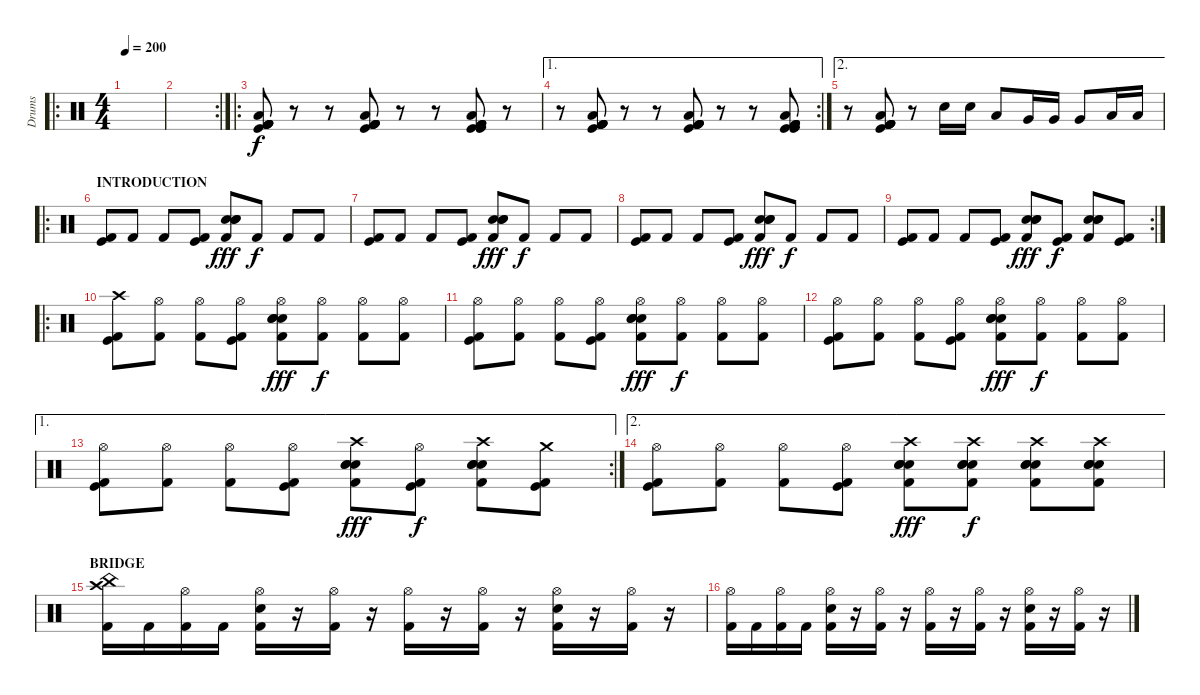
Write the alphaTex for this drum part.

\track ("Drums" "Drums") {instrument percussion}
\staff {score}
\articulation defaults
\ro
\ts (4 4)
\tempo 200
\clef neutral
\ks c
|
\rc 2
|
\ro
("Kick (hit)" "Low Floor Tom (hit)" "Kick (hit) 2" "Kick (hit) 2" "Kick (hit) 2" "Kick (hit) 2").8 r.8 r.8 ("Kick (hit)" "Low Floor Tom (hit)" "Kick (hit) 2" "Kick (hit) 2" "Kick (hit) 2" "Kick (hit) 2").8 r.8 r.8 ("Kick (hit)" "Low Floor Tom (hit)" "Kick (hit) 2" "Kick (hit) 2" "Kick (hit) 2" "Kick (hit)").8 r.8 |
\ae 1
\rc 2
r.8 ("Kick (hit)" "Low Floor Tom (hit)" "Kick (hit) 2" "Kick (hit) 2" "Kick (hit) 2" "Kick (hit) 2").8 r.8 r.8 ("Kick (hit)" "Low Floor Tom (hit)" "Kick (hit) 2" "Kick (hit) 2" "Kick (hit) 2" "Kick (hit) 2").8 r.8 r.8 ("Kick (hit)" "Low Floor Tom (hit)" "Kick (hit) 2" "Kick (hit) 2" "Kick (hit) 2" "Kick (hit)").8 |
\ae 2
r.8 ("Kick (hit)" "Low Floor Tom (hit)" "Kick (hit) 2" "Kick (hit) 2" "Kick (hit) 2" "Kick (hit) 2").8 r.8 "Electric Snare (hit)".16 "Electric Snare (hit)".16 "Low Floor Tom (hit)".8 "Very Low Tom (hit)".16 "Very Low Tom (hit)".16 "Very Low Tom (hit)".8 "Low Tom (hit)".16 "Low Tom (hit)".16 |
\ro
\section ("" "INTRODUCTION")
("Kick (hit)" "Kick (hit) 2").8 "Kick (hit) 2".8 "Kick (hit) 2".8 ("Kick (hit)" "Kick (hit) 2").8 ("Electric Snare (hit)" "Electric Snare (hit)" "Electric Snare (hit)" "Kick (hit) 2").8{dy fff} "Kick (hit) 2".8{dy f} "Kick (hit) 2".8 "Kick (hit) 2".8 |
("Kick (hit)" "Kick (hit) 2").8 "Kick (hit) 2".8 "Kick (hit) 2".8 ("Kick (hit)" "Kick (hit) 2").8 ("Electric Snare (hit)" "Electric Snare (hit)" "Electric Snare (hit)" "Kick (hit) 2").8{dy fff} "Kick (hit) 2".8{dy f} "Kick (hit) 2".8 "Kick (hit) 2".8 |
("Kick (hit)" "Kick (hit) 2").8 "Kick (hit) 2".8 "Kick (hit) 2".8 ("Kick (hit)" "Kick (hit) 2").8 ("Electric Snare (hit)" "Electric Snare (hit)" "Electric Snare (hit)" "Kick (hit) 2").8{dy fff} "Kick (hit) 2".8{dy f} "Kick (hit) 2".8 "Kick (hit) 2".8 |
\rc 2
("Kick (hit)" "Kick (hit) 2").8 "Kick (hit) 2".8 "Kick (hit) 2".8 ("Kick (hit)" "Kick (hit) 2").8 ("Electric Snare (hit)" "Electric Snare (hit)" "Electric Snare (hit)" "Kick (hit) 2").8{dy fff} ("Kick (hit)" "Kick (hit) 2").8{dy f} ("Electric Snare (hit)" "Electric Snare (hit)" "Electric Snare (hit)" "Kick (hit) 2").8 ("Kick (hit)" "Kick (hit) 2").8 |
\ro
("Crash high (hit)" "Kick (hit)" "Kick (hit) 2").8 ("Hi-Hat (open)" "Kick (hit) 2").8 ("Hi-Hat (open)" "Kick (hit) 2").8 ("Hi-Hat (open)" "Kick (hit)" "Kick (hit) 2").8 ("Hi-Hat (open)" "Electric Snare (hit)" "Electric Snare (hit)" "Electric Snare (hit)" "Kick (hit) 2").8{dy fff} ("Hi-Hat (open)" "Kick (hit) 2").8{dy f} ("Hi-Hat (open)" "Kick (hit) 2").8 ("Hi-Hat (open)" "Kick (hit) 2").8 |
("Hi-Hat (open)" "Kick (hit)" "Kick (hit) 2").8 ("Hi-Hat (open)" "Kick (hit) 2").8 ("Hi-Hat (open)" "Kick (hit) 2").8 ("Hi-Hat (open)" "Kick (hit)" "Kick (hit) 2").8 ("Hi-Hat (open)" "Electric Snare (hit)" "Electric Snare (hit)" "Electric Snare (hit)" "Kick (hit) 2").8{dy fff} ("Hi-Hat (open)" "Kick (hit) 2").8{dy f} ("Hi-Hat (open)" "Kick (hit) 2").8 ("Hi-Hat (open)" "Kick (hit) 2").8 |
("Hi-Hat (open)" "Kick (hit)" "Kick (hit) 2").8 ("Hi-Hat (open)" "Kick (hit) 2").8 ("Hi-Hat (open)" "Kick (hit) 2").8 ("Hi-Hat (open)" "Kick (hit)" "Kick (hit) 2").8 ("Hi-Hat (open)" "Electric Snare (hit)" "Electric Snare (hit)" "Electric Snare (hit)" "Kick (hit) 2").8{dy fff} ("Hi-Hat (open)" "Kick (hit) 2").8{dy f} ("Hi-Hat (open)" "Kick (hit) 2").8 ("Hi-Hat (open)" "Kick (hit) 2").8 |
\ae 1
\rc 2
("Hi-Hat (open)" "Kick (hit)" "Kick (hit) 2").8 ("Hi-Hat (open)" "Kick (hit) 2").8 ("Hi-Hat (open)" "Kick (hit) 2").8 ("Hi-Hat (open)" "Kick (hit)" "Kick (hit) 2").8 ("Crash high (hit)" "Electric Snare (hit)" "Electric Snare (hit)" "Electric Snare (hit)" "Kick (hit) 2").8{dy fff} ("Hi-Hat (open)" "Kick (hit)" "Kick (hit) 2").8{dy f} ("Crash high (hit)" "Electric Snare (hit)" "Electric Snare (hit)" "Electric Snare (hit)" "Kick (hit) 2").8 ("Crash medium (hit)" "Kick (hit)" "Kick (hit) 2").8 |
\ae 2
("Hi-Hat (open)" "Kick (hit)" "Kick (hit) 2").8 ("Hi-Hat (open)" "Kick (hit) 2").8 ("Hi-Hat (open)" "Kick (hit) 2").8 ("Hi-Hat (open)" "Kick (hit)" "Kick (hit) 2").8 ("Crash high (hit)" "Electric Snare (hit)" "Electric Snare (hit)" "Electric Snare (hit)" "Kick (hit) 2").8{dy fff} ("Crash high (hit)" "Electric Snare (hit)" "Electric Snare (hit)" "Electric Snare (hit)" "Kick (hit) 2").8{dy f} ("Crash high (hit)" "Electric Snare (hit)" "Electric Snare (hit)" "Electric Snare (hit)" "Kick (hit) 2").8 ("Crash high (hit)" "Electric Snare (hit)" "Electric Snare (hit)" "Electric Snare (hit)" "Kick (hit) 2").8 |
\section ("" "BRIDGE")
("Crash high (hit)" "China (hit)" "Kick (hit) 2").16 "Kick (hit) 2".16 ("Hi-Hat (open)" "Kick (hit) 2").16 "Kick (hit) 2".16 ("Hi-Hat (open)" "Electric Snare (hit)" "Kick (hit) 2").16 r.16 ("Hi-Hat (open)" "Kick (hit) 2").16 r.16 ("Hi-Hat (open)" "Kick (hit) 2").16 r.16 ("Hi-Hat (open)" "Kick (hit) 2").16 r.16 ("Hi-Hat (open)" "Electric Snare (hit)" "Kick (hit) 2").16 r.16 ("Hi-Hat (open)" "Kick (hit) 2").16 r.16 |
("Hi-Hat (open)" "Kick (hit) 2").16 "Kick (hit) 2".16 ("Hi-Hat (open)" "Kick (hit) 2").16 "Kick (hit) 2".16 ("Hi-Hat (open)" "Electric Snare (hit)" "Kick (hit) 2").16 r.16 ("Hi-Hat (open)" "Kick (hit) 2").16 r.16 ("Hi-Hat (open)" "Kick (hit) 2").16 r.16 ("Hi-Hat (open)" "Kick (hit) 2").16 r.16 ("Hi-Hat (open)" "Electric Snare (hit)" "Kick (hit) 2").16 r.16 ("Hi-Hat (open)" "Kick (hit) 2").16 r.16
